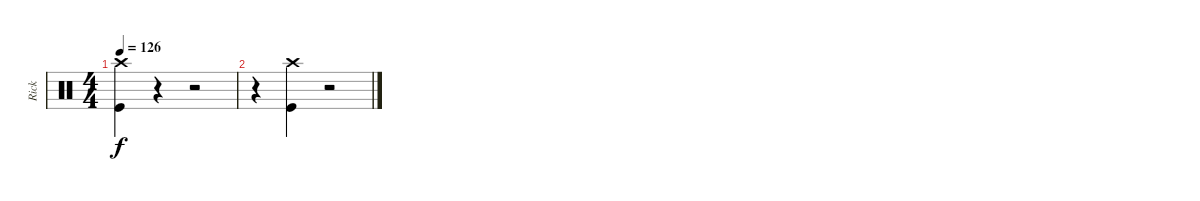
\track ("Rick" "Rick") {instrument percussion}
\staff {score}
\articulation defaults
\ts (4 4)
\tempo 126
\clef neutral
\ks aminor
("Crash high (hit)" "Kick (hit)").4{dy f} r.4 r.2 |
r.4 ("Crash high (hit)" "Kick (hit)").4 r.2
